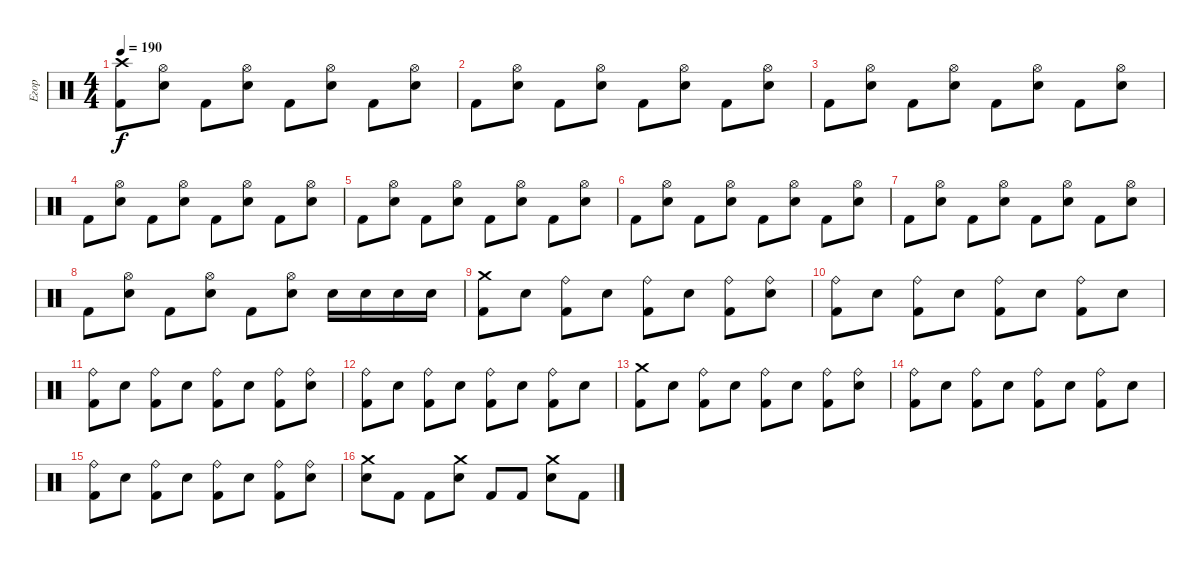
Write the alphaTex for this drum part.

\track ("Егор" "Егор") {instrument percussion}
\staff {score}
\articulation defaults
\ts (4 4)
\tempo 190
\clef neutral
\ks c
("Crash high (hit)" "Kick (hit) 2").8{dy f} ("Hi-Hat (open)" "Snare (hit) 2").8 "Kick (hit) 2".8 ("Hi-Hat (open)" "Snare (hit) 2").8 "Kick (hit) 2".8 ("Hi-Hat (open)" "Snare (hit) 2").8 "Kick (hit) 2".8 ("Hi-Hat (open)" "Snare (hit) 2").8 |
"Kick (hit) 2".8 ("Hi-Hat (open)" "Snare (hit) 2").8 "Kick (hit) 2".8 ("Hi-Hat (open)" "Snare (hit) 2").8 "Kick (hit) 2".8 ("Hi-Hat (open)" "Snare (hit) 2").8 "Kick (hit) 2".8 ("Hi-Hat (open)" "Snare (hit) 2").8 |
"Kick (hit) 2".8 ("Hi-Hat (open)" "Snare (hit) 2").8 "Kick (hit) 2".8 ("Hi-Hat (open)" "Snare (hit) 2").8 "Kick (hit) 2".8 ("Hi-Hat (open)" "Snare (hit) 2").8 "Kick (hit) 2".8 ("Hi-Hat (open)" "Snare (hit) 2").8 |
"Kick (hit) 2".8 ("Hi-Hat (open)" "Snare (hit) 2").8 "Kick (hit) 2".8 ("Hi-Hat (open)" "Snare (hit) 2").8 "Kick (hit) 2".8 ("Hi-Hat (open)" "Snare (hit) 2").8 "Kick (hit) 2".8 ("Hi-Hat (open)" "Snare (hit) 2").8 |
"Kick (hit) 2".8 ("Hi-Hat (open)" "Snare (hit) 2").8 "Kick (hit) 2".8 ("Hi-Hat (open)" "Snare (hit) 2").8 "Kick (hit) 2".8 ("Hi-Hat (open)" "Snare (hit) 2").8 "Kick (hit) 2".8 ("Hi-Hat (open)" "Snare (hit) 2").8 |
"Kick (hit) 2".8 ("Hi-Hat (open)" "Snare (hit) 2").8 "Kick (hit) 2".8 ("Hi-Hat (open)" "Snare (hit) 2").8 "Kick (hit) 2".8 ("Hi-Hat (open)" "Snare (hit) 2").8 "Kick (hit) 2".8 ("Hi-Hat (open)" "Snare (hit) 2").8 |
"Kick (hit) 2".8 ("Hi-Hat (open)" "Snare (hit) 2").8 "Kick (hit) 2".8 ("Hi-Hat (open)" "Snare (hit) 2").8 "Kick (hit) 2".8 ("Hi-Hat (open)" "Snare (hit) 2").8 "Kick (hit) 2".8 ("Hi-Hat (open)" "Snare (hit) 2").8 |
"Kick (hit) 2".8 ("Hi-Hat (open)" "Snare (hit) 2").8 "Kick (hit) 2".8 ("Hi-Hat (open)" "Snare (hit) 2").8 "Kick (hit) 2".8 ("Hi-Hat (open)" "Snare (hit) 2").8 "Snare (hit) 2".16 "Snare (hit) 2".16 "Snare (hit) 2".16 "Snare (hit) 2".16 |
("Kick (hit) 2" "Crash medium (hit)").8 "Snare (hit) 2".8 ("Kick (hit) 2" "Ride (bell)").8 "Snare (hit) 2".8 ("Kick (hit) 2" "Ride (bell)").8 "Snare (hit) 2".8 ("Kick (hit) 2" "Ride (bell)").8 ("Snare (hit) 2" "Ride (bell)").8 |
("Kick (hit) 2" "Ride (bell)").8 "Snare (hit) 2".8 ("Kick (hit) 2" "Ride (bell)").8 "Snare (hit) 2".8 ("Kick (hit) 2" "Ride (bell)").8 "Snare (hit) 2".8 ("Kick (hit) 2" "Ride (bell)").8 "Snare (hit) 2".8 |
("Kick (hit) 2" "Ride (bell)").8 "Snare (hit) 2".8 ("Kick (hit) 2" "Ride (bell)").8 "Snare (hit) 2".8 ("Kick (hit) 2" "Ride (bell)").8 "Snare (hit) 2".8 ("Kick (hit) 2" "Ride (bell)").8 ("Snare (hit) 2" "Ride (bell)").8 |
("Kick (hit) 2" "Ride (bell)").8 "Snare (hit) 2".8 ("Kick (hit) 2" "Ride (bell)").8 "Snare (hit) 2".8 ("Kick (hit) 2" "Ride (bell)").8 "Snare (hit) 2".8 ("Kick (hit) 2" "Ride (bell)").8 "Snare (hit) 2".8 |
("Kick (hit) 2" "Crash medium (hit)").8 "Snare (hit) 2".8 ("Kick (hit) 2" "Ride (bell)").8 "Snare (hit) 2".8 ("Kick (hit) 2" "Ride (bell)").8 "Snare (hit) 2".8 ("Kick (hit) 2" "Ride (bell)").8 ("Snare (hit) 2" "Ride (bell)").8 |
("Kick (hit) 2" "Ride (bell)").8 "Snare (hit) 2".8 ("Kick (hit) 2" "Ride (bell)").8 "Snare (hit) 2".8 ("Kick (hit) 2" "Ride (bell)").8 "Snare (hit) 2".8 ("Kick (hit) 2" "Ride (bell)").8 "Snare (hit) 2".8 |
("Kick (hit) 2" "Ride (bell)").8 "Snare (hit) 2".8 ("Kick (hit) 2" "Ride (bell)").8 "Snare (hit) 2".8 ("Kick (hit) 2" "Ride (bell)").8 "Snare (hit) 2".8 ("Kick (hit) 2" "Ride (bell)").8 ("Snare (hit) 2" "Ride (bell)").8 |
("Crash medium (hit)" "Snare (hit) 2").8 "Kick (hit) 2".8 "Kick (hit) 2".8 ("Crash medium (hit)" "Snare (hit) 2").8 "Kick (hit) 2".8 "Kick (hit) 2".8 ("Crash medium (hit)" "Snare (hit) 2").8 "Kick (hit) 2".8
